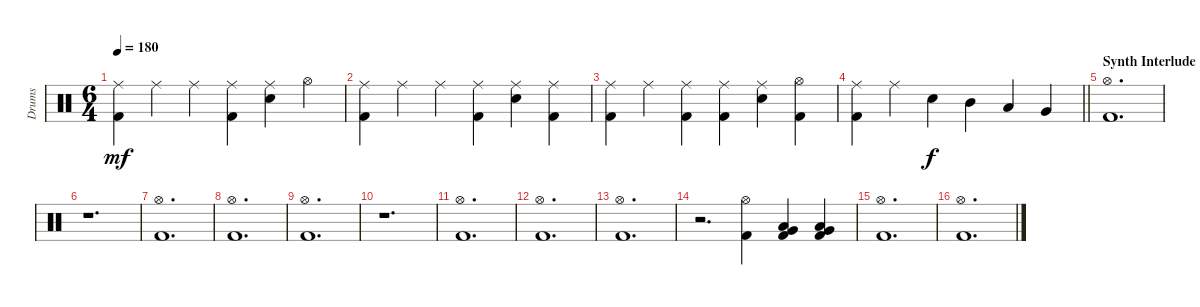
\track ("Drums" "Drums") {instrument percussion}
\staff {score}
\articulation defaults
\ts (6 4)
\tempo 180
\clef neutral
\ks c
("Ride (middle)" "Kick (hit) 2").4{dy mf} "Ride (middle)".4 "Ride (middle)".4 ("Ride (middle)" "Kick (hit) 2").4 ("Ride (middle)" "Snare (hit) 2").4 "Hi-Hat (open)".4 |
("Ride (middle)" "Kick (hit) 2").4 "Ride (middle)".4 "Ride (middle)".4 ("Ride (middle)" "Kick (hit) 2").4 ("Ride (middle)" "Snare (hit) 2").4 ("Ride (middle)" "Kick (hit) 2").4 |
("Ride (middle)" "Kick (hit) 2").4 "Ride (middle)".4 ("Ride (middle)" "Kick (hit) 2").4 ("Ride (middle)" "Kick (hit) 2").4 ("Ride (middle)" "Snare (hit) 2").4 ("Hi-Hat (open)" "Kick (hit) 2").4 |
\barLineRight lightlight
("Ride (middle)" "Kick (hit) 2").4 "Ride (middle)".4 "Snare (hit) 2".4{dy f} "Mid Tom (hit)".4 "Low Tom (hit)".4 "Very Low Tom (hit)".4 |
\section ("" "Synth Interlude")
("Hi-Hat (open)" "Kick (hit) 2").1{d} |
r.1{d} |
("Hi-Hat (open)" "Kick (hit) 2").1{d} |
("Hi-Hat (open)" "Kick (hit) 2").1{d} |
("Hi-Hat (open)" "Kick (hit) 2").1{d} |
r.1{d} |
("Hi-Hat (open)" "Kick (hit) 2").1{d} |
("Hi-Hat (open)" "Kick (hit) 2").1{d} |
("Hi-Hat (open)" "Kick (hit) 2").1{d} |
r.2{d} ("Hi-Hat (open)" "Kick (hit) 2").4 ("Very Low Tom (hit)" "Low Floor Tom (hit)" "Kick (hit) 2").4 ("Very Low Tom (hit)" "Low Floor Tom (hit)" "Kick (hit) 2").4 |
("Hi-Hat (open)" "Kick (hit) 2").1{d} |
("Hi-Hat (open)" "Kick (hit) 2").1{d}
